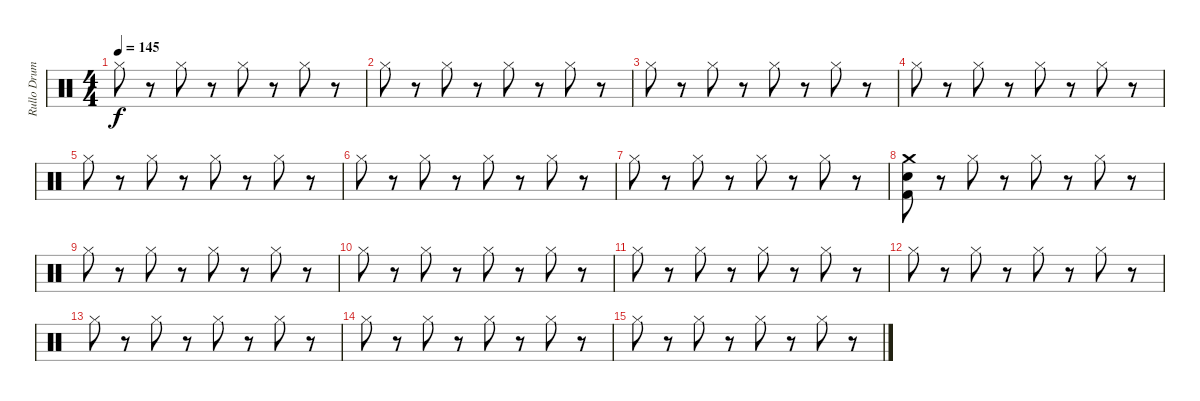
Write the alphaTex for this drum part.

\track ("Rullo Drums" "Rullo Drum") {instrument percussion}
\staff {score}
\articulation defaults
\ts (4 4)
\tempo 145
\clef neutral
\ks c "Hi-Hat (closed)".8{dy f}
r.8 "Hi-Hat (closed)".8 r.8 "Hi-Hat (closed)".8 r.8 "Hi-Hat (closed)".8 r.8 |
"Hi-Hat (closed)".8 r.8 "Hi-Hat (closed)".8 r.8 "Hi-Hat (closed)".8 r.8 "Hi-Hat (closed)".8 r.8 |
"Hi-Hat (closed)".8 r.8 "Hi-Hat (closed)".8 r.8 "Hi-Hat (closed)".8 r.8 "Hi-Hat (closed)".8 r.8 |
"Hi-Hat (closed)".8 r.8 "Hi-Hat (closed)".8 r.8 "Hi-Hat (closed)".8 r.8 "Hi-Hat (closed)".8 r.8 |
"Hi-Hat (closed)".8 r.8 "Hi-Hat (closed)".8 r.8 "Hi-Hat (closed)".8 r.8 "Hi-Hat (closed)".8 r.8 |
"Hi-Hat (closed)".8 r.8 "Hi-Hat (closed)".8 r.8 "Hi-Hat (closed)".8 r.8 "Hi-Hat (closed)".8 r.8 |
"Hi-Hat (closed)".8 r.8 "Hi-Hat (closed)".8 r.8 "Hi-Hat (closed)".8 r.8 "Hi-Hat (closed)".8 r.8 |
("Snare (hit) 2" "Kick (hit) 2" "Crash medium (hit)").8 r.8 "Hi-Hat (closed)".8 r.8 "Hi-Hat (closed)".8 r.8 "Hi-Hat (closed)".8 r.8 |
"Hi-Hat (closed)".8 r.8 "Hi-Hat (closed)".8 r.8 "Hi-Hat (closed)".8 r.8 "Hi-Hat (closed)".8 r.8 |
"Hi-Hat (closed)".8 r.8 "Hi-Hat (closed)".8 r.8 "Hi-Hat (closed)".8 r.8 "Hi-Hat (closed)".8 r.8 |
"Hi-Hat (closed)".8 r.8 "Hi-Hat (closed)".8 r.8 "Hi-Hat (closed)".8 r.8 "Hi-Hat (closed)".8 r.8 |
"Hi-Hat (closed)".8 r.8 "Hi-Hat (closed)".8 r.8 "Hi-Hat (closed)".8 r.8 "Hi-Hat (closed)".8 r.8 |
"Hi-Hat (closed)".8 r.8 "Hi-Hat (closed)".8 r.8 "Hi-Hat (closed)".8 r.8 "Hi-Hat (closed)".8 r.8 |
"Hi-Hat (closed)".8 r.8 "Hi-Hat (closed)".8 r.8 "Hi-Hat (closed)".8 r.8 "Hi-Hat (closed)".8 r.8 |
"Hi-Hat (closed)".8 r.8 "Hi-Hat (closed)".8 r.8 "Hi-Hat (closed)".8 r.8 "Hi-Hat (closed)".8 r.8
